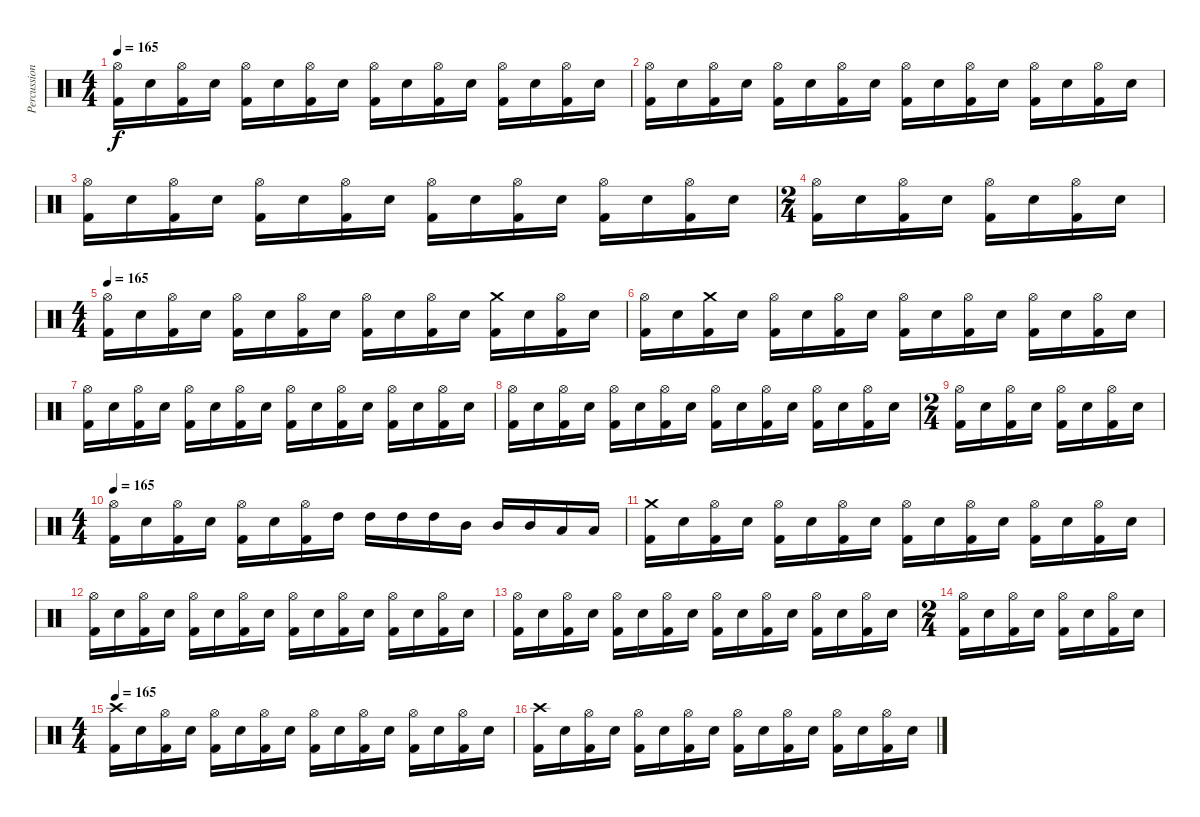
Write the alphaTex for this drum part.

\track ("Percussion" "Percussion") {instrument percussion}
\staff {score}
\articulation defaults
\ts (4 4)
\tempo 165
\clef neutral
\ks c
("Hi-Hat (open)" "Kick (hit) 2").16{dy f} "Electric Snare (hit)".16 ("Hi-Hat (open)" "Kick (hit) 2").16 "Electric Snare (hit)".16 ("Hi-Hat (open)" "Kick (hit) 2").16 "Electric Snare (hit)".16 ("Hi-Hat (open)" "Kick (hit) 2").16 "Electric Snare (hit)".16 ("Hi-Hat (open)" "Kick (hit) 2").16 "Electric Snare (hit)".16 ("Hi-Hat (open)" "Kick (hit) 2").16 "Electric Snare (hit)".16 ("Hi-Hat (open)" "Kick (hit) 2").16 "Electric Snare (hit)".16 ("Hi-Hat (open)" "Kick (hit) 2").16 "Electric Snare (hit)".16 |
("Hi-Hat (open)" "Kick (hit) 2").16 "Electric Snare (hit)".16 ("Hi-Hat (open)" "Kick (hit) 2").16 "Electric Snare (hit)".16 ("Hi-Hat (open)" "Kick (hit) 2").16 "Electric Snare (hit)".16 ("Hi-Hat (open)" "Kick (hit) 2").16 "Electric Snare (hit)".16 ("Hi-Hat (open)" "Kick (hit) 2").16 "Electric Snare (hit)".16 ("Hi-Hat (open)" "Kick (hit) 2").16 "Electric Snare (hit)".16 ("Hi-Hat (open)" "Kick (hit) 2").16 "Electric Snare (hit)".16 ("Hi-Hat (open)" "Kick (hit) 2").16 "Electric Snare (hit)".16 |
("Hi-Hat (open)" "Kick (hit) 2").16 "Electric Snare (hit)".16 ("Hi-Hat (open)" "Kick (hit) 2").16 "Electric Snare (hit)".16 ("Hi-Hat (open)" "Kick (hit) 2").16 "Electric Snare (hit)".16 ("Hi-Hat (open)" "Kick (hit) 2").16 "Electric Snare (hit)".16 ("Hi-Hat (open)" "Kick (hit) 2").16 "Electric Snare (hit)".16 ("Hi-Hat (open)" "Kick (hit) 2").16 "Electric Snare (hit)".16 ("Hi-Hat (open)" "Kick (hit) 2").16 "Electric Snare (hit)".16 ("Hi-Hat (open)" "Kick (hit) 2").16 "Electric Snare (hit)".16 |
\ts (2 4)
("Hi-Hat (open)" "Kick (hit) 2").16 "Electric Snare (hit)".16 ("Hi-Hat (open)" "Kick (hit) 2").16 "Electric Snare (hit)".16 ("Hi-Hat (open)" "Kick (hit) 2").16 "Electric Snare (hit)".16 ("Hi-Hat (open)" "Kick (hit) 2").16 "Electric Snare (hit)".16 |
\ts (4 4)
\tempo 165
("Hi-Hat (open)" "Kick (hit) 2").16 "Electric Snare (hit)".16 ("Hi-Hat (open)" "Kick (hit) 2").16 "Electric Snare (hit)".16 ("Hi-Hat (open)" "Kick (hit) 2").16 "Electric Snare (hit)".16 ("Hi-Hat (open)" "Kick (hit) 2").16 "Electric Snare (hit)".16 ("Hi-Hat (open)" "Kick (hit) 2").16 "Electric Snare (hit)".16 ("Hi-Hat (open)" "Kick (hit) 2").16 "Electric Snare (hit)".16 ("Crash medium (hit)" "Kick (hit) 2").16 "Electric Snare (hit)".16 ("Hi-Hat (open)" "Kick (hit) 2").16 "Electric Snare (hit)".16 |
("Hi-Hat (open)" "Kick (hit) 2").16 "Electric Snare (hit)".16 ("Crash medium (hit)" "Kick (hit) 2").16 "Electric Snare (hit)".16 ("Hi-Hat (open)" "Kick (hit) 2").16 "Electric Snare (hit)".16 ("Hi-Hat (open)" "Kick (hit) 2").16 "Electric Snare (hit)".16 ("Hi-Hat (open)" "Kick (hit) 2").16 "Electric Snare (hit)".16 ("Hi-Hat (open)" "Kick (hit) 2").16 "Electric Snare (hit)".16 ("Hi-Hat (open)" "Kick (hit) 2").16 "Electric Snare (hit)".16 ("Hi-Hat (open)" "Kick (hit) 2").16 "Electric Snare (hit)".16 |
("Hi-Hat (open)" "Kick (hit) 2").16 "Electric Snare (hit)".16 ("Hi-Hat (open)" "Kick (hit) 2").16 "Electric Snare (hit)".16 ("Hi-Hat (open)" "Kick (hit) 2").16 "Electric Snare (hit)".16 ("Hi-Hat (open)" "Kick (hit) 2").16 "Electric Snare (hit)".16 ("Hi-Hat (open)" "Kick (hit) 2").16 "Electric Snare (hit)".16 ("Hi-Hat (open)" "Kick (hit) 2").16 "Electric Snare (hit)".16 ("Hi-Hat (open)" "Kick (hit) 2").16 "Electric Snare (hit)".16 ("Hi-Hat (open)" "Kick (hit) 2").16 "Electric Snare (hit)".16 |
("Hi-Hat (open)" "Kick (hit) 2").16 "Electric Snare (hit)".16 ("Hi-Hat (open)" "Kick (hit) 2").16 "Electric Snare (hit)".16 ("Hi-Hat (open)" "Kick (hit) 2").16 "Electric Snare (hit)".16 ("Hi-Hat (open)" "Kick (hit) 2").16 "Electric Snare (hit)".16 ("Hi-Hat (open)" "Kick (hit) 2").16 "Electric Snare (hit)".16 ("Hi-Hat (open)" "Kick (hit) 2").16 "Electric Snare (hit)".16 ("Hi-Hat (open)" "Kick (hit) 2").16 "Electric Snare (hit)".16 ("Hi-Hat (open)" "Kick (hit) 2").16 "Electric Snare (hit)".16 |
\ts (2 4)
("Hi-Hat (open)" "Kick (hit) 2").16 "Electric Snare (hit)".16 ("Hi-Hat (open)" "Kick (hit) 2").16 "Electric Snare (hit)".16 ("Hi-Hat (open)" "Kick (hit) 2").16 "Electric Snare (hit)".16 ("Hi-Hat (open)" "Kick (hit) 2").16 "Electric Snare (hit)".16 |
\ts (4 4)
\tempo 165
("Hi-Hat (open)" "Kick (hit) 2").16 "Electric Snare (hit)".16 ("Hi-Hat (open)" "Kick (hit) 2").16 "Electric Snare (hit)".16 ("Hi-Hat (open)" "Kick (hit) 2").16 "Electric Snare (hit)".16 ("Hi-Hat (open)" "Kick (hit) 2").16 "High Tom (hit)".16 "High Tom (hit)".16 "High Tom (hit)".16 "High Tom (hit)".16 "Mid Tom (hit)".16 "Mid Tom (hit)".16 "Mid Tom (hit)".16 "Low Tom (hit)".16 "Low Tom (hit)".16 |
("Crash medium (hit)" "Kick (hit) 2").16 "Electric Snare (hit)".16 ("Hi-Hat (open)" "Kick (hit) 2").16 "Electric Snare (hit)".16 ("Hi-Hat (open)" "Kick (hit) 2").16 "Electric Snare (hit)".16 ("Hi-Hat (open)" "Kick (hit) 2").16 "Electric Snare (hit)".16 ("Hi-Hat (open)" "Kick (hit) 2").16 "Electric Snare (hit)".16 ("Hi-Hat (open)" "Kick (hit) 2").16 "Electric Snare (hit)".16 ("Hi-Hat (open)" "Kick (hit) 2").16 "Electric Snare (hit)".16 ("Hi-Hat (open)" "Kick (hit) 2").16 "Electric Snare (hit)".16 |
("Hi-Hat (open)" "Kick (hit) 2").16 "Electric Snare (hit)".16 ("Hi-Hat (open)" "Kick (hit) 2").16 "Electric Snare (hit)".16 ("Hi-Hat (open)" "Kick (hit) 2").16 "Electric Snare (hit)".16 ("Hi-Hat (open)" "Kick (hit) 2").16 "Electric Snare (hit)".16 ("Hi-Hat (open)" "Kick (hit) 2").16 "Electric Snare (hit)".16 ("Hi-Hat (open)" "Kick (hit) 2").16 "Electric Snare (hit)".16 ("Hi-Hat (open)" "Kick (hit) 2").16 "Electric Snare (hit)".16 ("Hi-Hat (open)" "Kick (hit) 2").16 "Electric Snare (hit)".16 |
("Hi-Hat (open)" "Kick (hit) 2").16 "Electric Snare (hit)".16 ("Hi-Hat (open)" "Kick (hit) 2").16 "Electric Snare (hit)".16 ("Hi-Hat (open)" "Kick (hit) 2").16 "Electric Snare (hit)".16 ("Hi-Hat (open)" "Kick (hit) 2").16 "Electric Snare (hit)".16 ("Hi-Hat (open)" "Kick (hit) 2").16 "Electric Snare (hit)".16 ("Hi-Hat (open)" "Kick (hit) 2").16 "Electric Snare (hit)".16 ("Hi-Hat (open)" "Kick (hit) 2").16 "Electric Snare (hit)".16 ("Hi-Hat (open)" "Kick (hit) 2").16 "Electric Snare (hit)".16 |
\ts (2 4)
("Hi-Hat (open)" "Kick (hit) 2").16 "Electric Snare (hit)".16 ("Hi-Hat (open)" "Kick (hit) 2").16 "Electric Snare (hit)".16 ("Hi-Hat (open)" "Kick (hit) 2").16 "Electric Snare (hit)".16 ("Hi-Hat (open)" "Kick (hit) 2").16 "Electric Snare (hit)".16 |
\ts (4 4)
\tempo 165
("Crash high (hit)" "Kick (hit) 2").16 "Electric Snare (hit)".16 ("Hi-Hat (open)" "Kick (hit) 2").16 "Electric Snare (hit)".16 ("Hi-Hat (open)" "Kick (hit) 2").16 "Electric Snare (hit)".16 ("Hi-Hat (open)" "Kick (hit) 2").16 "Electric Snare (hit)".16 ("Hi-Hat (open)" "Kick (hit) 2").16 "Electric Snare (hit)".16 ("Hi-Hat (open)" "Kick (hit) 2").16 "Electric Snare (hit)".16 ("Hi-Hat (open)" "Kick (hit) 2").16 "Electric Snare (hit)".16 ("Hi-Hat (open)" "Kick (hit) 2").16 "Electric Snare (hit)".16 |
("Crash high (hit)" "Kick (hit) 2").16 "Electric Snare (hit)".16 ("Hi-Hat (open)" "Kick (hit) 2").16 "Electric Snare (hit)".16 ("Hi-Hat (open)" "Kick (hit) 2").16 "Electric Snare (hit)".16 ("Hi-Hat (open)" "Kick (hit) 2").16 "Electric Snare (hit)".16 ("Hi-Hat (open)" "Kick (hit) 2").16 "Electric Snare (hit)".16 ("Hi-Hat (open)" "Kick (hit) 2").16 "Electric Snare (hit)".16 ("Hi-Hat (open)" "Kick (hit) 2").16 "Electric Snare (hit)".16 ("Hi-Hat (open)" "Kick (hit) 2").16 "Electric Snare (hit)".16
